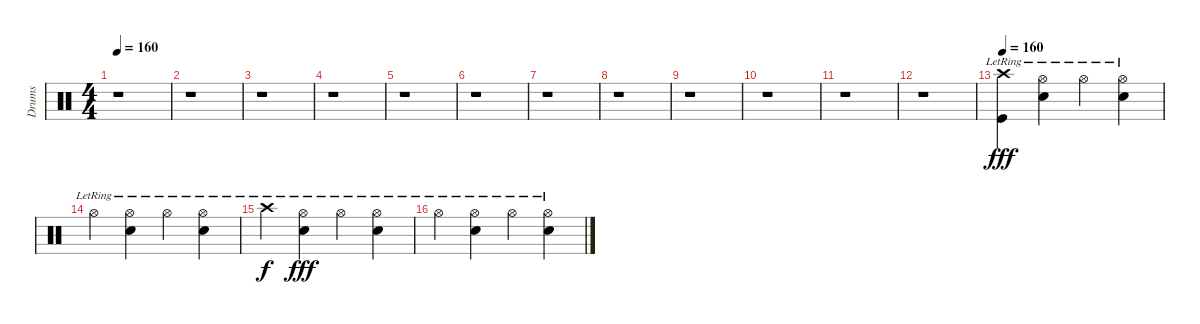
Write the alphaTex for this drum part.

\track ("Drums" "Drums") {instrument percussion}
\staff {score}
\articulation defaults
\ts (4 4)
\tempo 160
\clef neutral
\ks c
r.1{dy fff} |
r.1 |
r.1 |
r.1 |
r.1 |
r.1 |
r.1 |
r.1 |
r.1 |
r.1 |
r.1 |
r.1 |
\tempo 160
("Crash high (hit)"{lr} "Kick (hit)"{lr}).4 ("Hi-Hat (open)"{lr} "Snare (hit) 2"{lr}).4 "Hi-Hat (open)"{lr}.4 ("Hi-Hat (open)"{lr} "Snare (hit) 2"{lr}).4 |
"Hi-Hat (open)"{lr}.4 ("Hi-Hat (open)"{lr} "Snare (hit) 2"{lr}).4 "Hi-Hat (open)"{lr}.4 ("Hi-Hat (open)"{lr} "Snare (hit) 2"{lr}).4 |
"Crash high (hit)"{lr}.4{dy f} ("Hi-Hat (open)"{lr} "Snare (hit) 2"{lr}).4{dy fff} "Hi-Hat (open)"{lr}.4 ("Hi-Hat (open)"{lr} "Snare (hit) 2"{lr}).4 |
"Hi-Hat (open)"{lr}.4 ("Hi-Hat (open)"{lr} "Snare (hit) 2"{lr}).4 "Hi-Hat (open)"{lr}.4 ("Hi-Hat (open)"{lr} "Snare (hit) 2"{lr}).4
